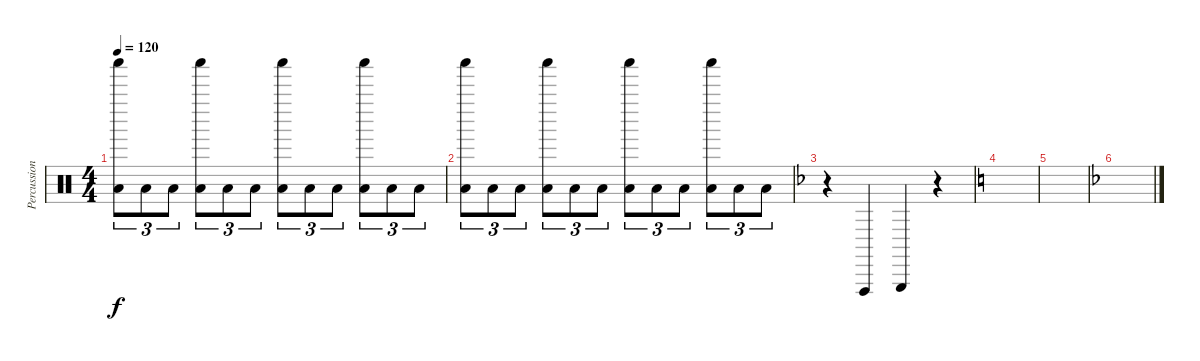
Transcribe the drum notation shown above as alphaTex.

\track ("Percussioni" "Percussion") {instrument percussion}
\staff {score}
\articulation defaults
\ts (4 4)
\tempo 120
\clef neutral
\ks c
("Low Floor Tom (hit)" "Shaker (hit)").8{tu (3 2) dy f} "Low Floor Tom (hit)".8{tu (3 2)} "Low Floor Tom (hit)".8{tu (3 2)} ("Low Floor Tom (hit)" "Shaker (hit)").8{tu (3 2)} "Low Floor Tom (hit)".8{tu (3 2)} "Low Floor Tom (hit)".8{tu (3 2)} ("Low Floor Tom (hit)" "Shaker (hit)").8{tu (3 2)} "Low Floor Tom (hit)".8{tu (3 2)} "Low Floor Tom (hit)".8{tu (3 2)} ("Low Floor Tom (hit)" "Shaker (hit)").8{tu (3 2)} "Low Floor Tom (hit)".8{tu (3 2)} "Low Floor Tom (hit)".8{tu (3 2)} |
("Low Floor Tom (hit)" "Shaker (hit)").8{tu (3 2)} "Low Floor Tom (hit)".8{tu (3 2)} "Low Floor Tom (hit)".8{tu (3 2)} ("Low Floor Tom (hit)" "Shaker (hit)").8{tu (3 2)} "Low Floor Tom (hit)".8{tu (3 2)} "Low Floor Tom (hit)".8{tu (3 2)} ("Low Floor Tom (hit)" "Shaker (hit)").8{tu (3 2)} "Low Floor Tom (hit)".8{tu (3 2)} "Low Floor Tom (hit)".8{tu (3 2)} ("Low Floor Tom (hit)" "Shaker (hit)").8{tu (3 2)} "Low Floor Tom (hit)".8{tu (3 2)} "Low Floor Tom (hit)".8{tu (3 2)} |
\ks f
r.4 "Vibraslap (hit)".4 "Triangle (hit)".4 r.4 |
\ks c
|
|
\ks f
